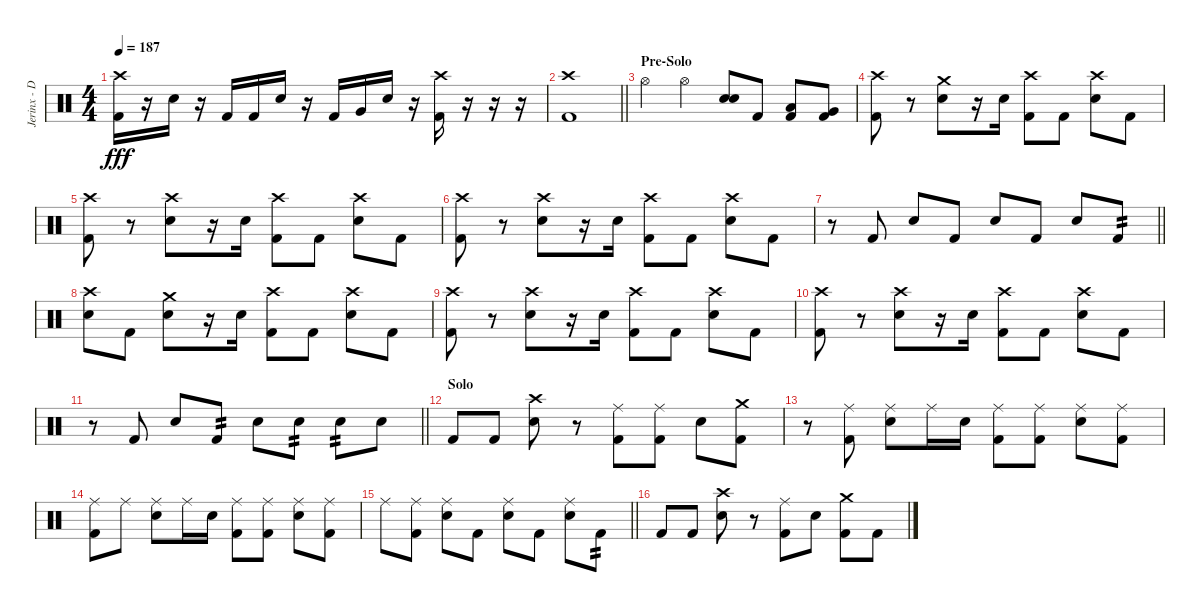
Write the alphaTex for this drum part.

\track ("Jerinx - Drum" "Jerinx - D") {instrument percussion}
\staff {score}
\articulation defaults
\ts (4 4)
\tempo 187
\clef neutral
\ks c
("Kick (hit) 2" "Crash high (hit)").16{dy fff} r.16 "Snare (hit) 2".16 r.16 "Kick (hit) 2".16 "Kick (hit) 2".16 "Snare (hit) 2".16 r.16 "Kick (hit) 2".16 "Very Low Tom (hit)".16 "Snare (hit) 2".16 r.16 ("Kick (hit) 2" "Crash high (hit)").16 r.16 r.16 r.16 |
\barLineRight lightlight
("Kick (hit) 2" "Crash high (hit)").1 |
\section ("" "Pre-Solo")
"Hi-Hat (open)".4 "Hi-Hat (open)".4 ("Snare (hit) 2" "Snare (hit) 2").8{bu 240} "Kick (hit) 2".8 ("Kick (hit) 2" "Low Tom (hit)").8 ("Kick (hit) 2" "Very Low Tom (hit)").8 |
("Kick (hit) 2" "Crash high (hit)").8 r.8 ("Snare (hit) 2" "Crash medium (hit)").8 r.16 "Snare (hit) 2".16 ("Kick (hit) 2" "Crash high (hit)").8 "Kick (hit) 2".8 ("Snare (hit) 2" "Crash high (hit)").8 "Kick (hit) 2".8 |
("Kick (hit) 2" "Crash high (hit)").8 r.8 ("Snare (hit) 2" "Crash high (hit)").8 r.16 "Snare (hit) 2".16 ("Kick (hit) 2" "Crash high (hit)").8 "Kick (hit) 2".8 ("Snare (hit) 2" "Crash high (hit)").8 "Kick (hit) 2".8 |
("Kick (hit) 2" "Crash high (hit)").8 r.8 ("Snare (hit) 2" "Crash high (hit)").8 r.16 "Snare (hit) 2".16 ("Kick (hit) 2" "Crash high (hit)").8 "Kick (hit) 2".8 ("Snare (hit) 2" "Crash high (hit)").8 "Kick (hit) 2".8 |
\barLineRight lightlight
r.8 "Kick (hit) 2".8 "Snare (hit) 2".8 "Kick (hit) 2".8 "Snare (hit) 2".8 "Kick (hit) 2".8 "Snare (hit) 2".8 "Kick (hit) 2".8{tp 2} |
("Snare (hit) 2" "Crash high (hit)").8 "Kick (hit) 2".8 ("Snare (hit) 2" "Crash medium (hit)").8 r.16 "Snare (hit) 2".16 ("Kick (hit) 2" "Crash high (hit)").8 "Kick (hit) 2".8 ("Snare (hit) 2" "Crash high (hit)").8 "Kick (hit) 2".8 |
("Kick (hit) 2" "Crash high (hit)").8 r.8 ("Snare (hit) 2" "Crash high (hit)").8 r.16 "Snare (hit) 2".16 ("Kick (hit) 2" "Crash high (hit)").8 "Kick (hit) 2".8 ("Snare (hit) 2" "Crash high (hit)").8 "Kick (hit) 2".8 |
("Kick (hit) 2" "Crash high (hit)").8 r.8 ("Snare (hit) 2" "Crash high (hit)").8 r.16 "Snare (hit) 2".16 ("Kick (hit) 2" "Crash high (hit)").8 "Kick (hit) 2".8 ("Snare (hit) 2" "Crash high (hit)").8 "Kick (hit) 2".8 |
\barLineRight lightlight
r.8 "Kick (hit) 2".8 "Snare (hit) 2".8 "Kick (hit) 2".8{tp 2} "Snare (hit) 2".8 "Snare (hit) 2".8{tp 2} "Snare (hit) 2".8{tp 2} "Snare (hit) 2".8 |
\section ("" "Solo")
"Kick (hit) 2".8 "Kick (hit) 2".8 ("Snare (hit) 2" "Crash high (hit)").8 r.8 ("Kick (hit) 2" "Ride (middle)").8 ("Kick (hit) 2" "Ride (middle)").8 "Snare (hit) 2".8 ("Kick (hit) 2" "Crash medium (hit)").8 |
r.8 ("Kick (hit) 2" "Ride (middle)").8 ("Snare (hit) 2" "Ride (middle)").8 "Ride (middle)".16 "Snare (hit) 2".16 ("Kick (hit) 2" "Ride (middle)").8 ("Kick (hit) 2" "Ride (middle)").8 ("Snare (hit) 2" "Ride (middle)").8 ("Kick (hit) 2" "Ride (middle)").8 |
("Kick (hit) 2" "Ride (middle)").8 "Ride (middle)".8 ("Snare (hit) 2" "Ride (middle)").8 "Ride (middle)".16 "Snare (hit) 2".16 ("Kick (hit) 2" "Ride (middle)").8 ("Kick (hit) 2" "Ride (middle)").8 ("Snare (hit) 2" "Ride (middle)").8 ("Kick (hit) 2" "Ride (middle)").8 |
\barLineRight lightlight "Ride (middle)".8
("Kick (hit) 2" "Ride (middle)").8 ("Snare (hit) 2" "Ride (middle)").8 "Kick (hit) 2".8 ("Snare (hit) 2" "Ride (middle)").8 "Kick (hit) 2".8 ("Snare (hit) 2" "Ride (middle)").8 "Kick (hit) 2".8{tp 2} |
"Kick (hit) 2".8 "Kick (hit) 2".8 ("Snare (hit) 2" "Crash high (hit)").8 r.8 ("Kick (hit) 2" "Ride (middle)").8 "Snare (hit) 2".8 ("Kick (hit) 2" "Crash medium (hit)").8 "Kick (hit) 2".8
